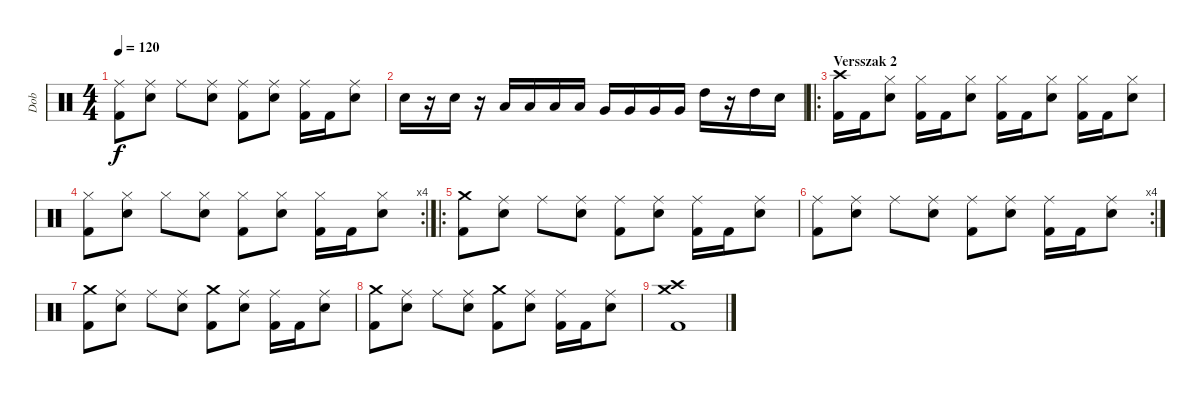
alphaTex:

\track ("Dob" "Dob") {instrument percussion}
\staff {score}
\articulation defaults
\ts (4 4)
\tempo 120
\clef neutral
\ks c
("Ride (middle)" "Kick (hit) 2").8{dy f} ("Ride (middle)" "Snare (hit) 2").8 "Ride (middle)".8 ("Ride (middle)" "Snare (hit) 2").8 ("Ride (middle)" "Kick (hit) 2").8 ("Ride (middle)" "Snare (hit) 2").8 ("Ride (middle)" "Kick (hit) 2").16 "Kick (hit) 2".16 ("Ride (middle)" "Snare (hit) 2").8 |
"Snare (hit) 2".16 r.16 "Snare (hit) 2".16 r.16 "Low Tom (hit)".16 "Low Tom (hit)".16 "Low Tom (hit)".16 "Low Tom (hit)".16 "Very Low Tom (hit)".16 "Very Low Tom (hit)".16 "Very Low Tom (hit)".16 "Very Low Tom (hit)".16 "High Tom (hit)".16 r.16 "High Tom (hit)".16 "Snare (hit) 2".16 |
\ro
\section ("" "Versszak 2")
("Crash high (hit)" "Kick (hit) 2").16 "Kick (hit) 2".16 ("Hi-Hat (closed)" "Snare (hit) 2").8 ("Hi-Hat (closed)" "Kick (hit) 2").16 "Kick (hit) 2".16 ("Hi-Hat (closed)" "Snare (hit) 2").8 ("Hi-Hat (closed)" "Kick (hit) 2").16 "Kick (hit) 2".16 ("Hi-Hat (closed)" "Snare (hit) 2").8 ("Hi-Hat (closed)" "Kick (hit) 2").16 "Kick (hit) 2".16 ("Hi-Hat (closed)" "Snare (hit) 2").8 |
\rc 4
("Hi-Hat (closed)" "Kick (hit) 2").8 ("Hi-Hat (closed)" "Snare (hit) 2").8 "Hi-Hat (closed)".8 ("Hi-Hat (closed)" "Snare (hit) 2").8 ("Hi-Hat (closed)" "Kick (hit) 2").8 ("Hi-Hat (closed)" "Snare (hit) 2").8 ("Hi-Hat (closed)" "Kick (hit) 2").16 "Kick (hit) 2".16 ("Hi-Hat (closed)" "Snare (hit) 2").8 |
\ro
("Crash medium (hit)" "Kick (hit) 2").8 ("Ride (middle)" "Snare (hit) 2").8 "Ride (middle)".8 ("Ride (middle)" "Snare (hit) 2").8 ("Ride (middle)" "Kick (hit) 2").8 ("Ride (middle)" "Snare (hit) 2").8 ("Ride (middle)" "Kick (hit) 2").16 "Kick (hit) 2".16 ("Ride (middle)" "Snare (hit) 2").8 |
\rc 4
("Ride (middle)" "Kick (hit) 2").8 ("Ride (middle)" "Snare (hit) 2").8 "Ride (middle)".8 ("Ride (middle)" "Snare (hit) 2").8 ("Ride (middle)" "Kick (hit) 2").8 ("Ride (middle)" "Snare (hit) 2").8 ("Ride (middle)" "Kick (hit) 2").16 "Kick (hit) 2".16 ("Ride (middle)" "Snare (hit) 2").8 |
("Crash medium (hit)" "Kick (hit) 2").8 ("Ride (middle)" "Snare (hit) 2").8 "Ride (middle)".8 ("Ride (middle)" "Snare (hit) 2").8 ("Crash medium (hit)" "Kick (hit) 2").8 ("Ride (middle)" "Snare (hit) 2").8 ("Ride (middle)" "Kick (hit) 2").16 "Kick (hit) 2".16 ("Ride (middle)" "Snare (hit) 2").8 |
("Crash medium (hit)" "Kick (hit) 2").8 ("Ride (middle)" "Snare (hit) 2").8 "Ride (middle)".8 ("Ride (middle)" "Snare (hit) 2").8 ("Crash medium (hit)" "Kick (hit) 2").8 ("Ride (middle)" "Snare (hit) 2").8 ("Ride (middle)" "Kick (hit) 2").16 "Kick (hit) 2".16 ("Ride (middle)" "Snare (hit) 2").8 |
("Crash high (hit)" "Crash medium (hit)" "Kick (hit) 2").1
